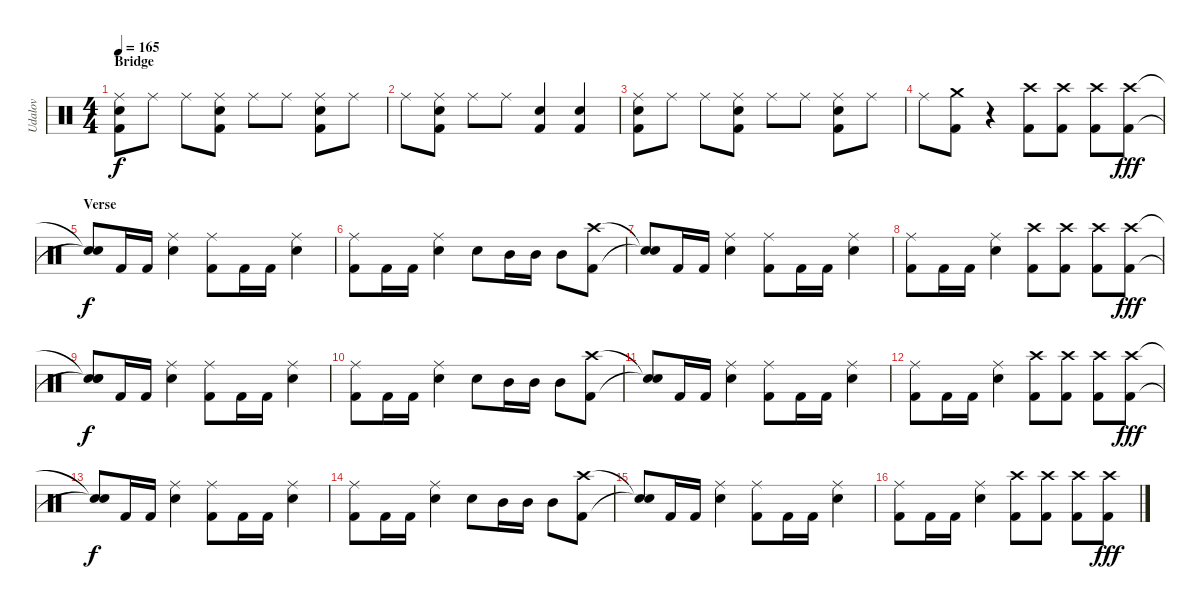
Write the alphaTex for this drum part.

\track ("Udalov" "Udalov") {instrument percussion}
\staff {score}
\articulation defaults
\ts (4 4)
\section ("" "Bridge")
\tempo 165
\clef neutral
\ks c
("Snare (hit) 2" "Ride (middle)" "Kick (hit) 2").8{dy f} "Ride (middle)".8 "Ride (middle)".8 ("Snare (hit) 2" "Ride (middle)" "Kick (hit) 2").8 "Ride (middle)".8 "Ride (middle)".8 ("Snare (hit) 2" "Ride (middle)" "Kick (hit) 2").8 "Ride (middle)".8 |
"Ride (middle)".8 ("Snare (hit) 2" "Ride (middle)" "Kick (hit) 2").8 "Ride (middle)".8 "Ride (middle)".8 ("Snare (hit) 2" "Kick (hit) 2").4 ("Snare (hit) 2" "Kick (hit) 2").4 |
("Snare (hit) 2" "Ride (middle)" "Kick (hit) 2").8 "Ride (middle)".8 "Ride (middle)".8 ("Snare (hit) 2" "Ride (middle)" "Kick (hit) 2").8 "Ride (middle)".8 "Ride (middle)".8 ("Snare (hit) 2" "Ride (middle)" "Kick (hit) 2").8 "Ride (middle)".8 |
"Ride (middle)".8 ("Kick (hit) 2" "Crash medium (hit)").8 r.4 ("Kick (hit) 2" "Crash high (hit)").8 ("Kick (hit) 2" "Crash high (hit)").8 ("Kick (hit) 2" "Crash high (hit)").8 ("Kick (hit) 2" "Crash high (hit)").8{dy fff} |
\section ("" "Verse")
("Snare (hit)"{t} "Snare (hit)"{t}).8{dy f} "Kick (hit) 2".16 "Kick (hit) 2".16 ("Snare (hit) 2" "Ride (middle)").4 ("Kick (hit) 2" "Ride (middle)").8 "Kick (hit) 2".16 "Kick (hit) 2".16 ("Snare (hit) 2" "Ride (middle)").4 |
("Kick (hit) 2" "Ride (middle)").8 "Kick (hit) 2".16 "Kick (hit) 2".16 ("Snare (hit) 2" "Ride (middle)").4 "Snare (hit) 2".8 "Mid Tom (hit)".16 "Mid Tom (hit)".16 "Mid Tom (hit)".8 ("Kick (hit) 2" "Crash high (hit)").8 |
("Snare (hit)"{t} "Snare (hit)"{t}).8 "Kick (hit) 2".16 "Kick (hit) 2".16 ("Snare (hit) 2" "Ride (middle)").4 ("Kick (hit) 2" "Ride (middle)").8 "Kick (hit) 2".16 "Kick (hit) 2".16 ("Snare (hit) 2" "Ride (middle)").4 |
("Kick (hit) 2" "Ride (middle)").8 "Kick (hit) 2".16 "Kick (hit) 2".16 ("Snare (hit) 2" "Ride (middle)").4 ("Kick (hit) 2" "Crash high (hit)").8 ("Kick (hit) 2" "Crash high (hit)").8 ("Kick (hit) 2" "Crash high (hit)").8 ("Kick (hit) 2" "Crash high (hit)").8{dy fff} |
("Snare (hit)"{t} "Snare (hit)"{t} "Snare (hit)").8{dy f} "Kick (hit) 2".16 "Kick (hit) 2".16 ("Snare (hit) 2" "Ride (middle)").4 ("Kick (hit) 2" "Ride (middle)").8 "Kick (hit) 2".16 "Kick (hit) 2".16 ("Snare (hit) 2" "Ride (middle)").4 |
("Kick (hit) 2" "Ride (middle)").8 "Kick (hit) 2".16 "Kick (hit) 2".16 ("Snare (hit) 2" "Ride (middle)").4 "Snare (hit) 2".8 "Mid Tom (hit)".16 "Mid Tom (hit)".16 "Mid Tom (hit)".8 ("Kick (hit) 2" "Crash high (hit)").8 |
("Snare (hit)"{t} "Snare (hit)"{t}).8 "Kick (hit) 2".16 "Kick (hit) 2".16 ("Snare (hit) 2" "Ride (middle)").4 ("Kick (hit) 2" "Ride (middle)").8 "Kick (hit) 2".16 "Kick (hit) 2".16 ("Snare (hit) 2" "Ride (middle)").4 |
("Kick (hit) 2" "Ride (middle)").8 "Kick (hit) 2".16 "Kick (hit) 2".16 ("Snare (hit) 2" "Ride (middle)").4 ("Kick (hit) 2" "Crash high (hit)").8 ("Kick (hit) 2" "Crash high (hit)").8 ("Kick (hit) 2" "Crash high (hit)").8 ("Kick (hit) 2" "Crash high (hit)").8{dy fff} |
("Snare (hit)"{t} "Snare (hit)"{t}).8{dy f} "Kick (hit) 2".16 "Kick (hit) 2".16 ("Snare (hit) 2" "Ride (middle)").4 ("Kick (hit) 2" "Ride (middle)").8 "Kick (hit) 2".16 "Kick (hit) 2".16 ("Snare (hit) 2" "Ride (middle)").4 |
("Kick (hit) 2" "Ride (middle)").8 "Kick (hit) 2".16 "Kick (hit) 2".16 ("Snare (hit) 2" "Ride (middle)").4 "Snare (hit) 2".8 "Mid Tom (hit)".16 "Mid Tom (hit)".16 "Mid Tom (hit)".8 ("Kick (hit) 2" "Crash high (hit)").8 |
("Snare (hit)"{t} "Snare (hit)"{t}).8 "Kick (hit) 2".16 "Kick (hit) 2".16 ("Snare (hit) 2" "Ride (middle)").4 ("Kick (hit) 2" "Ride (middle)").8 "Kick (hit) 2".16 "Kick (hit) 2".16 ("Snare (hit) 2" "Ride (middle)").4 |
("Kick (hit) 2" "Ride (middle)").8 "Kick (hit) 2".16 "Kick (hit) 2".16 ("Snare (hit) 2" "Ride (middle)").4 ("Kick (hit) 2" "Crash high (hit)").8 ("Kick (hit) 2" "Crash high (hit)").8 ("Kick (hit) 2" "Crash high (hit)").8 ("Kick (hit) 2" "Crash high (hit)").8{dy fff}
